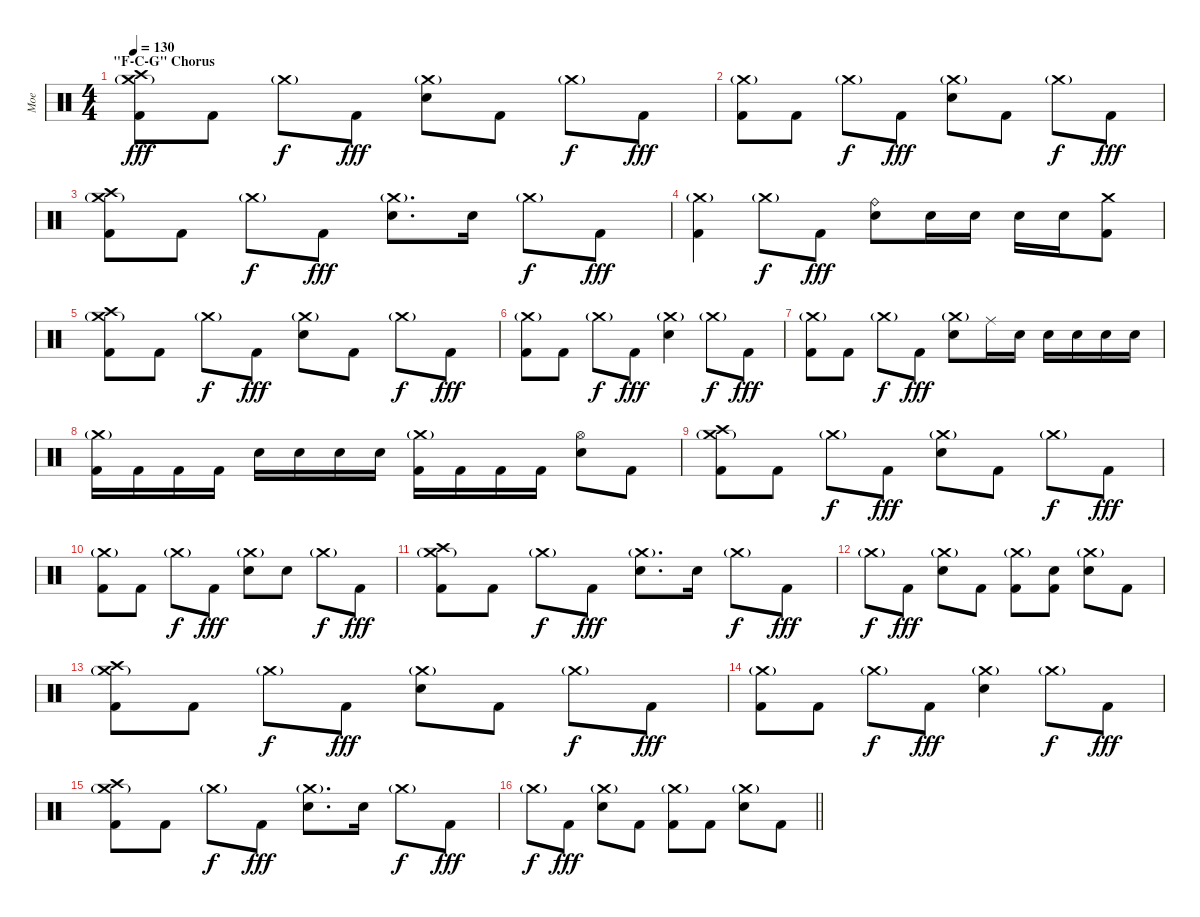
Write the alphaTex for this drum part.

\track ("Moe" "Moe") {instrument percussion}
\staff {score}
\articulation defaults
\ts (4 4)
\section ("" "\"F-C-G\" Chorus")
\tempo 130
\clef neutral
\ks c
("Crash medium (hit)"{g} "Crash high (hit)" "Kick (hit) 2").8{dy fff} "Kick (hit) 2".8 "Crash medium (hit)"{g}.8{dy f} "Kick (hit) 2".8{dy fff} ("Crash medium (hit)"{g} "Electric Snare (hit)").8 "Kick (hit) 2".8 "Crash medium (hit)"{g}.8{dy f} "Kick (hit) 2".8{dy fff} |
("Crash medium (hit)"{g} "Kick (hit) 2").8 "Kick (hit) 2".8 "Crash medium (hit)"{g}.8{dy f} "Kick (hit) 2".8{dy fff} ("Crash medium (hit)"{g} "Electric Snare (hit)").8 "Kick (hit) 2".8 "Crash medium (hit)"{g}.8{dy f} "Kick (hit) 2".8{dy fff} |
("Crash medium (hit)"{g} "Crash high (hit)" "Kick (hit) 2").8 "Kick (hit) 2".8 "Crash medium (hit)"{g}.8{dy f} "Kick (hit) 2".8{dy fff} ("Crash medium (hit)"{g} "Electric Snare (hit)").8{d} "Electric Snare (hit)".16 "Crash medium (hit)"{g}.8{dy f} "Kick (hit) 2".8{dy fff} |
("Crash medium (hit)"{g} "Kick (hit) 2").4 "Crash medium (hit)"{g}.8{dy f} "Kick (hit) 2".8{dy fff} ("Ride (bell)" "Electric Snare (hit)").8 "Electric Snare (hit)".16 "Electric Snare (hit)".16 "Electric Snare (hit)".16 "Electric Snare (hit)".16 ("Crash medium (hit)" "Kick (hit) 2").8 |
("Crash medium (hit)"{g} "Crash high (hit)" "Kick (hit) 2").8 "Kick (hit) 2".8 "Crash medium (hit)"{g}.8{dy f} "Kick (hit) 2".8{dy fff} ("Crash medium (hit)"{g} "Electric Snare (hit)").8 "Kick (hit) 2".8 "Crash medium (hit)"{g}.8{dy f} "Kick (hit) 2".8{dy fff} |
("Crash medium (hit)"{g} "Kick (hit) 2").8 "Kick (hit) 2".8 "Crash medium (hit)"{g}.8{dy f} "Kick (hit) 2".8{dy fff} ("Crash medium (hit)"{g} "Electric Snare (hit)").4 "Crash medium (hit)"{g}.8{dy f} "Kick (hit) 2".8{dy fff} |
("Crash medium (hit)"{g} "Kick (hit) 2").8 "Kick (hit) 2".8 "Crash medium (hit)"{g}.8{dy f} "Kick (hit) 2".8{dy fff} ("Crash medium (hit)"{g} "Electric Snare (hit)").8 "Ride (middle)".16 "Electric Snare (hit)".16 "Electric Snare (hit)".16 "Electric Snare (hit)".16 "Electric Snare (hit)".16 "Electric Snare (hit)".16 |
("Crash medium (hit)"{g} "Kick (hit) 2").16 "Kick (hit) 2".16 "Kick (hit) 2".16 "Kick (hit) 2".16 "Electric Snare (hit)".16 "Electric Snare (hit)".16 "Electric Snare (hit)".16 "Electric Snare (hit)".16 ("Crash medium (hit)"{g} "Kick (hit) 2").16 "Kick (hit) 2".16 "Kick (hit) 2".16 "Kick (hit) 2".16 ("Hi-Hat (open)" "Electric Snare (hit)").8 "Kick (hit) 2".8 |
("Crash medium (hit)"{g} "Crash high (hit)" "Kick (hit) 2").8 "Kick (hit) 2".8 "Crash medium (hit)"{g}.8{dy f} "Kick (hit) 2".8{dy fff} ("Crash medium (hit)"{g} "Electric Snare (hit)").8 "Kick (hit) 2".8 "Crash medium (hit)"{g}.8{dy f} "Kick (hit) 2".8{dy fff} |
("Crash medium (hit)"{g} "Kick (hit) 2").8 "Kick (hit) 2".8 "Crash medium (hit)"{g}.8{dy f} "Kick (hit) 2".8{dy fff} ("Crash medium (hit)"{g} "Electric Snare (hit)").8 "Electric Snare (hit)".8 "Crash medium (hit)"{g}.8{dy f} "Kick (hit) 2".8{dy fff} |
("Crash medium (hit)"{g} "Crash high (hit)" "Kick (hit) 2").8 "Kick (hit) 2".8 "Crash medium (hit)"{g}.8{dy f} "Kick (hit) 2".8{dy fff} ("Crash medium (hit)"{g} "Electric Snare (hit)").8{d} "Electric Snare (hit)".16 "Crash medium (hit)"{g}.8{dy f} "Kick (hit) 2".8{dy fff} |
"Crash medium (hit)"{g}.8{dy f} "Kick (hit) 2".8{dy fff} ("Crash medium (hit)"{g} "Electric Snare (hit)").8 "Kick (hit) 2".8 ("Crash medium (hit)"{g} "Kick (hit) 2").8 ("Electric Snare (hit)" "Kick (hit) 2").8 ("Crash medium (hit)"{g} "Electric Snare (hit)").8 "Kick (hit) 2".8 |
("Crash medium (hit)"{g} "Crash high (hit)" "Kick (hit) 2").8 "Kick (hit) 2".8 "Crash medium (hit)"{g}.8{dy f} "Kick (hit) 2".8{dy fff} ("Crash medium (hit)"{g} "Electric Snare (hit)").8 "Kick (hit) 2".8 "Crash medium (hit)"{g}.8{dy f} "Kick (hit) 2".8{dy fff} |
("Crash medium (hit)"{g} "Kick (hit) 2").8 "Kick (hit) 2".8 "Crash medium (hit)"{g}.8{dy f} "Kick (hit) 2".8{dy fff} ("Crash medium (hit)"{g} "Electric Snare (hit)").4 "Crash medium (hit)"{g}.8{dy f} "Kick (hit) 2".8{dy fff} |
("Crash medium (hit)"{g} "Crash high (hit)" "Kick (hit) 2").8 "Kick (hit) 2".8 "Crash medium (hit)"{g}.8{dy f} "Kick (hit) 2".8{dy fff} ("Crash medium (hit)"{g} "Electric Snare (hit)").8{d} "Electric Snare (hit)".16 "Crash medium (hit)"{g}.8{dy f} "Kick (hit) 2".8{dy fff} |
\barLineRight lightlight "Crash medium (hit)"{g}.8{dy f} "Kick (hit) 2".8{dy fff}
("Crash medium (hit)"{g} "Electric Snare (hit)").8 "Kick (hit) 2".8 ("Crash medium (hit)"{g} "Kick (hit) 2").8 "Kick (hit) 2".8 ("Crash medium (hit)"{g} "Electric Snare (hit)").8 "Kick (hit) 2".8
